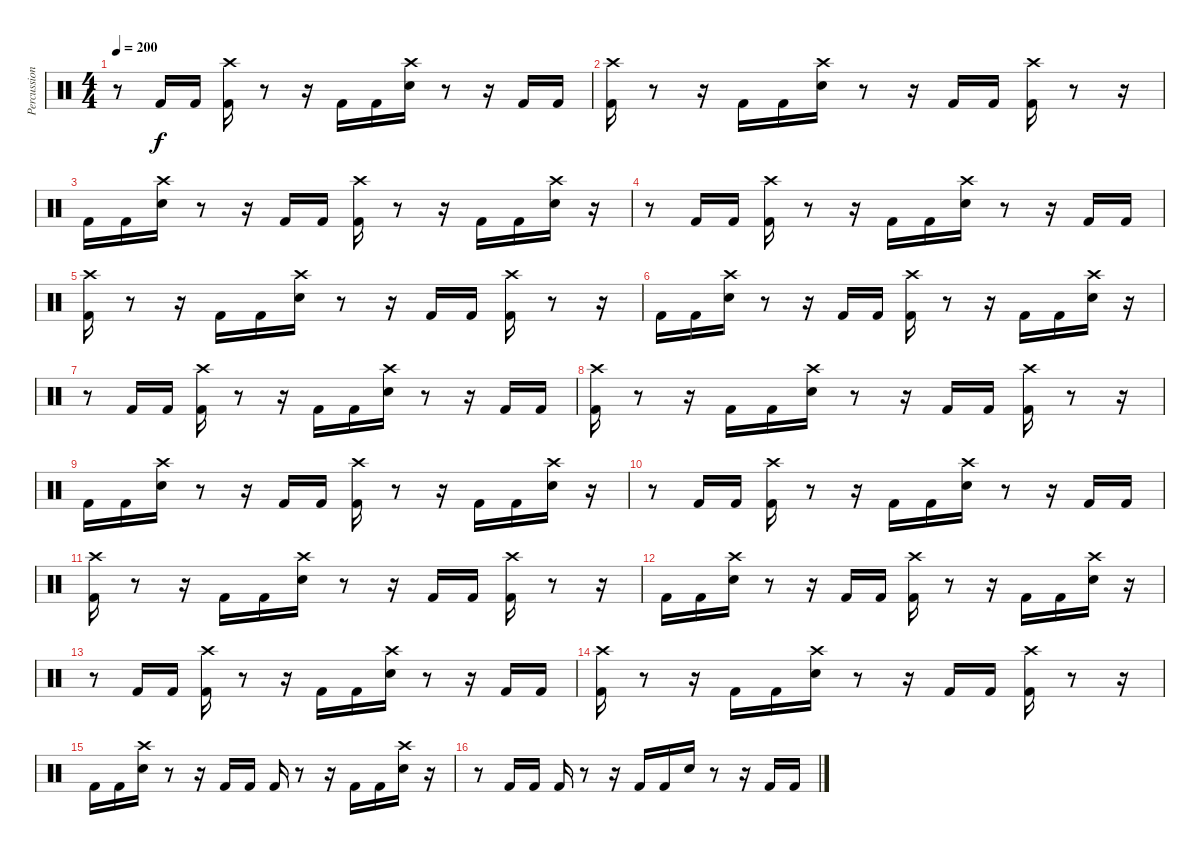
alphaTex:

\track ("Percussion" "Percussion") {instrument percussion}
\staff {score}
\articulation defaults
\ts (4 4)
\tempo 200
\clef neutral
\ks c
r.8{dy f} "Kick (hit) 2".16 "Kick (hit) 2".16 ("Crash high (hit)" "Kick (hit) 2").16 r.8 r.16 "Kick (hit) 2".16 "Kick (hit) 2".16 ("Crash high (hit)" "Electric Snare (hit)").16 r.8 r.16 "Kick (hit) 2".16 "Kick (hit) 2".16 |
("Crash high (hit)" "Kick (hit) 2").16 r.8 r.16 "Kick (hit) 2".16 "Kick (hit) 2".16 ("Crash high (hit)" "Electric Snare (hit)").16 r.8 r.16 "Kick (hit) 2".16 "Kick (hit) 2".16 ("Crash high (hit)" "Kick (hit) 2").16 r.8 r.16 |
"Kick (hit) 2".16 "Kick (hit) 2".16 ("Crash high (hit)" "Electric Snare (hit)").16 r.8 r.16 "Kick (hit) 2".16 "Kick (hit) 2".16 ("Crash high (hit)" "Kick (hit) 2").16 r.8 r.16 "Kick (hit) 2".16 "Kick (hit) 2".16 ("Crash high (hit)" "Electric Snare (hit)").16 r.16 |
r.8 "Kick (hit) 2".16 "Kick (hit) 2".16 ("Crash high (hit)" "Kick (hit) 2").16 r.8 r.16 "Kick (hit) 2".16 "Kick (hit) 2".16 ("Crash high (hit)" "Electric Snare (hit)").16 r.8 r.16 "Kick (hit) 2".16 "Kick (hit) 2".16 |
("Crash high (hit)" "Kick (hit) 2").16 r.8 r.16 "Kick (hit) 2".16 "Kick (hit) 2".16 ("Crash high (hit)" "Electric Snare (hit)").16 r.8 r.16 "Kick (hit) 2".16 "Kick (hit) 2".16 ("Crash high (hit)" "Kick (hit) 2").16 r.8 r.16 |
"Kick (hit) 2".16 "Kick (hit) 2".16 ("Crash high (hit)" "Electric Snare (hit)").16 r.8 r.16 "Kick (hit) 2".16 "Kick (hit) 2".16 ("Crash high (hit)" "Kick (hit) 2").16 r.8 r.16 "Kick (hit) 2".16 "Kick (hit) 2".16 ("Crash high (hit)" "Electric Snare (hit)").16 r.16 |
r.8 "Kick (hit) 2".16 "Kick (hit) 2".16 ("Crash high (hit)" "Kick (hit) 2").16 r.8 r.16 "Kick (hit) 2".16 "Kick (hit) 2".16 ("Crash high (hit)" "Electric Snare (hit)").16 r.8 r.16 "Kick (hit) 2".16 "Kick (hit) 2".16 |
("Crash high (hit)" "Kick (hit) 2").16 r.8 r.16 "Kick (hit) 2".16 "Kick (hit) 2".16 ("Crash high (hit)" "Electric Snare (hit)").16 r.8 r.16 "Kick (hit) 2".16 "Kick (hit) 2".16 ("Crash high (hit)" "Kick (hit) 2").16 r.8 r.16 |
"Kick (hit) 2".16 "Kick (hit) 2".16 ("Crash high (hit)" "Electric Snare (hit)").16 r.8 r.16 "Kick (hit) 2".16 "Kick (hit) 2".16 ("Crash high (hit)" "Kick (hit) 2").16 r.8 r.16 "Kick (hit) 2".16 "Kick (hit) 2".16 ("Crash high (hit)" "Electric Snare (hit)").16 r.16 |
r.8 "Kick (hit) 2".16 "Kick (hit) 2".16 ("Crash high (hit)" "Kick (hit) 2").16 r.8 r.16 "Kick (hit) 2".16 "Kick (hit) 2".16 ("Crash high (hit)" "Electric Snare (hit)").16 r.8 r.16 "Kick (hit) 2".16 "Kick (hit) 2".16 |
("Crash high (hit)" "Kick (hit) 2").16 r.8 r.16 "Kick (hit) 2".16 "Kick (hit) 2".16 ("Crash high (hit)" "Electric Snare (hit)").16 r.8 r.16 "Kick (hit) 2".16 "Kick (hit) 2".16 ("Crash high (hit)" "Kick (hit) 2").16 r.8 r.16 |
"Kick (hit) 2".16 "Kick (hit) 2".16 ("Crash high (hit)" "Electric Snare (hit)").16 r.8 r.16 "Kick (hit) 2".16 "Kick (hit) 2".16 ("Crash high (hit)" "Kick (hit) 2").16 r.8 r.16 "Kick (hit) 2".16 "Kick (hit) 2".16 ("Crash high (hit)" "Electric Snare (hit)").16 r.16 |
r.8 "Kick (hit) 2".16 "Kick (hit) 2".16 ("Crash high (hit)" "Kick (hit) 2").16 r.8 r.16 "Kick (hit) 2".16 "Kick (hit) 2".16 ("Crash high (hit)" "Electric Snare (hit)").16 r.8 r.16 "Kick (hit) 2".16 "Kick (hit) 2".16 |
("Crash high (hit)" "Kick (hit) 2").16 r.8 r.16 "Kick (hit) 2".16 "Kick (hit) 2".16 ("Crash high (hit)" "Electric Snare (hit)").16 r.8 r.16 "Kick (hit) 2".16 "Kick (hit) 2".16 ("Crash high (hit)" "Kick (hit) 2").16 r.8 r.16 |
"Kick (hit) 2".16 "Kick (hit) 2".16 ("Crash high (hit)" "Electric Snare (hit)").16 r.8 r.16 "Kick (hit) 2".16 "Kick (hit) 2".16 "Kick (hit) 2".16 r.8 r.16 "Kick (hit) 2".16 "Kick (hit) 2".16 ("Crash high (hit)" "Electric Snare (hit)").16 r.16 |
r.8 "Kick (hit) 2".16 "Kick (hit) 2".16 "Kick (hit) 2".16 r.8 r.16 "Kick (hit) 2".16 "Kick (hit) 2".16 "Electric Snare (hit)".16 r.8 r.16 "Kick (hit) 2".16 "Kick (hit) 2".16
